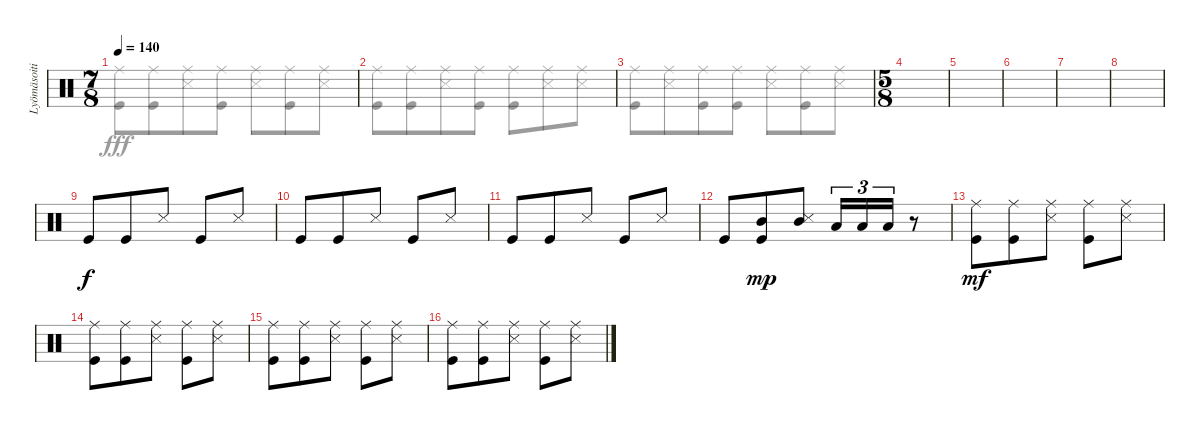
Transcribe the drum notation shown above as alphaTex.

\track ("Lyömäsoitin" "Lyömäsoiti") {instrument percussion}
\staff {score}
\articulation defaults
\voice
\ts (7 8)
\tempo 140
\clef neutral
\ks c
|
|
|
\ts (5 8)
|
|
|
|
|
"Kick (hit)".8{dy f} "Kick (hit)".8 "Snare (side stick) 3".8 "Kick (hit)".8 "Snare (side stick) 3".8 |
"Kick (hit)".8 "Kick (hit)".8 "Snare (side stick) 3".8 "Kick (hit)".8 "Snare (side stick) 3".8 |
"Kick (hit)".8 "Kick (hit)".8 "Snare (side stick) 3".8 "Kick (hit)".8 "Snare (side stick) 3".8 |
"Kick (hit)".8 ("Kick (hit)" "Mid Tom (hit)").8{dy mp} ("Snare (side stick) 3" "Mid Tom (hit)").8 "Low Tom (hit)".16{tu (3 2)} "Low Tom (hit)".16{tu (3 2)} "Low Tom (hit)".16{tu (3 2)} r.8 |
("Ride (middle)" "Kick (hit)").8{dy mf} ("Ride (middle)" "Kick (hit)").8 ("Ride (middle)" "Snare (side stick) 3").8 ("Ride (middle)" "Kick (hit)").8 ("Ride (middle)" "Snare (side stick) 3").8 |
("Ride (middle)" "Kick (hit)").8 ("Ride (middle)" "Kick (hit)").8 ("Ride (middle)" "Snare (side stick) 3").8 ("Ride (middle)" "Kick (hit)").8 ("Ride (middle)" "Snare (side stick) 3").8 |
("Ride (middle)" "Kick (hit)").8 ("Ride (middle)" "Kick (hit)").8 ("Ride (middle)" "Snare (side stick) 3").8 ("Ride (middle)" "Kick (hit)").8 ("Ride (middle)" "Snare (side stick) 3").8 |
("Ride (middle)" "Kick (hit)").8 ("Ride (middle)" "Kick (hit)").8 ("Ride (middle)" "Snare (side stick) 3").8 ("Ride (middle)" "Kick (hit)").8 ("Ride (middle)" "Snare (side stick) 3").8
\voice
\clef neutral
\ottava regular
\simile none
\ks c
("Ride (middle)" "Kick (hit)").8{dy fff} ("Ride (middle)" "Kick (hit)").8 ("Ride (middle)" "Snare (side stick) 3").8 ("Ride (middle)" "Kick (hit)").8 ("Ride (middle)" "Snare (side stick) 3").8 ("Ride (middle)" "Kick (hit)").8 ("Ride (middle)" "Snare (side stick) 3").8 |
("Ride (middle)" "Kick (hit)").8 ("Ride (middle)" "Kick (hit)").8 ("Ride (middle)" "Snare (side stick) 3").8 ("Ride (middle)" "Kick (hit)").8 ("Ride (middle)" "Kick (hit)").8 ("Ride (middle)" "Snare (side stick) 3").8 ("Ride (middle)" "Snare (side stick) 3").8 |
("Ride (middle)" "Kick (hit)").8 ("Ride (middle)" "Snare (side stick) 3").8 ("Ride (middle)" "Kick (hit)").8 ("Ride (middle)" "Kick (hit)").8 ("Ride (middle)" "Snare (side stick) 3").8 ("Ride (middle)" "Kick (hit)").8 ("Ride (middle)" "Snare (side stick) 3").8 |
|
|
|
|
|
|
|
|
|
|
|
|
